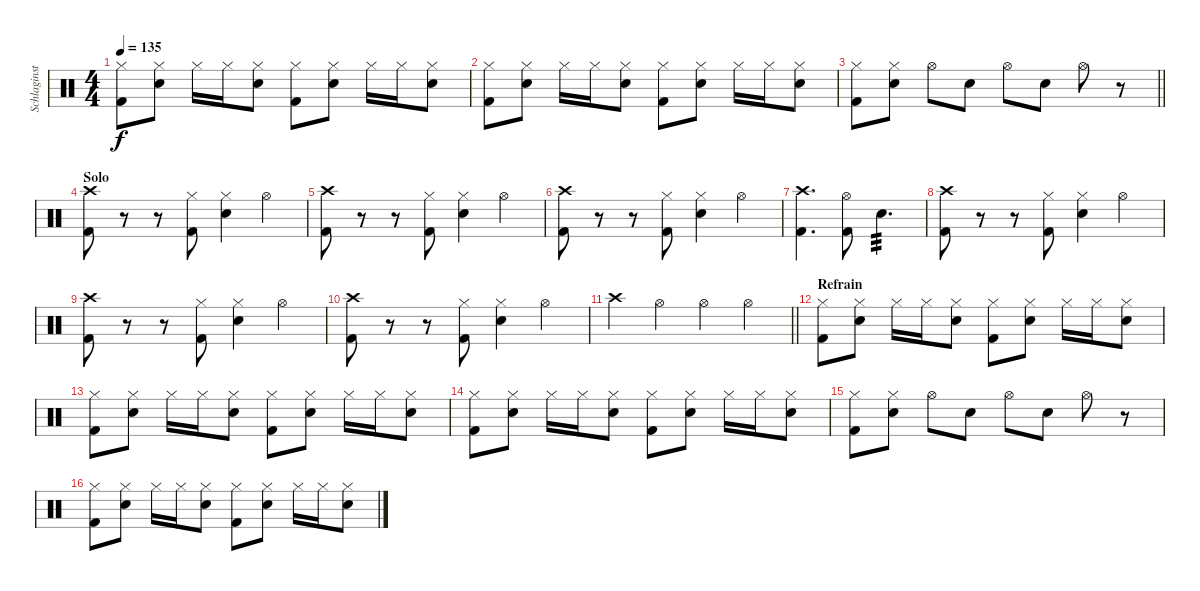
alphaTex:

\track ("Schlaginstrumente - Auswahl" "Schlaginst") {instrument percussion}
\staff {score}
\articulation defaults
\ts (4 4)
\tempo 135
\clef neutral
\ks c
("Hi-Hat (closed)" "Kick (hit) 2").8{dy f} ("Hi-Hat (closed)" "Snare (hit) 2").8 "Hi-Hat (closed)".16 "Hi-Hat (closed)".16 ("Hi-Hat (closed)" "Snare (hit) 2").8 ("Hi-Hat (closed)" "Kick (hit) 2").8 ("Hi-Hat (closed)" "Snare (hit) 2").8 "Hi-Hat (closed)".16 "Hi-Hat (closed)".16 ("Hi-Hat (closed)" "Snare (hit) 2").8 |
("Hi-Hat (closed)" "Kick (hit) 2").8 ("Hi-Hat (closed)" "Snare (hit) 2").8 "Hi-Hat (closed)".16 "Hi-Hat (closed)".16 ("Hi-Hat (closed)" "Snare (hit) 2").8 ("Hi-Hat (closed)" "Kick (hit) 2").8 ("Hi-Hat (closed)" "Snare (hit) 2").8 "Hi-Hat (closed)".16 "Hi-Hat (closed)".16 ("Hi-Hat (closed)" "Snare (hit) 2").8 |
\barLineRight lightlight
("Hi-Hat (closed)" "Kick (hit) 2").8 ("Hi-Hat (closed)" "Snare (hit) 2").8 "Hi-Hat (open)".8 "Snare (hit) 2".8 "Hi-Hat (open)".8 "Snare (hit) 2".8 "Hi-Hat (open)".8 r.8 |
\section ("" "Solo")
("Crash high (hit)" "Kick (hit) 2").8 r.8 r.8 ("Hi-Hat (closed)" "Kick (hit) 2").8 ("Hi-Hat (closed)" "Snare (hit) 2").4 "Hi-Hat (open)".4 |
("Crash high (hit)" "Kick (hit) 2").8 r.8 r.8 ("Hi-Hat (closed)" "Kick (hit) 2").8 ("Hi-Hat (closed)" "Snare (hit) 2").4 "Hi-Hat (open)".4 |
("Crash high (hit)" "Kick (hit) 2").8 r.8 r.8 ("Hi-Hat (closed)" "Kick (hit) 2").8 ("Hi-Hat (closed)" "Snare (hit) 2").4 "Hi-Hat (open)".4 |
("Crash high (hit)" "Kick (hit) 2").4{d} ("Hi-Hat (open)" "Kick (hit) 2").8 "Snare (hit) 2".4{d tp 3} |
("Crash high (hit)" "Kick (hit) 2").8 r.8 r.8 ("Hi-Hat (closed)" "Kick (hit) 2").8 ("Hi-Hat (closed)" "Snare (hit) 2").4 "Hi-Hat (open)".4 |
("Crash high (hit)" "Kick (hit) 2").8 r.8 r.8 ("Hi-Hat (closed)" "Kick (hit) 2").8 ("Hi-Hat (closed)" "Snare (hit) 2").4 "Hi-Hat (open)".4 |
("Crash high (hit)" "Kick (hit) 2").8 r.8 r.8 ("Hi-Hat (closed)" "Kick (hit) 2").8 ("Hi-Hat (closed)" "Snare (hit) 2").4 "Hi-Hat (open)".4 |
\barLineRight lightlight "Crash high (hit)".4 "Hi-Hat (open)".4 "Hi-Hat (open)".4 "Hi-Hat (open)".4
|
\section ("" "Refrain")
("Hi-Hat (closed)" "Kick (hit) 2").8 ("Hi-Hat (closed)" "Snare (hit) 2").8 "Hi-Hat (closed)".16 "Hi-Hat (closed)".16 ("Hi-Hat (closed)" "Snare (hit) 2").8 ("Hi-Hat (closed)" "Kick (hit) 2").8 ("Hi-Hat (closed)" "Snare (hit) 2").8 "Hi-Hat (closed)".16 "Hi-Hat (closed)".16 ("Hi-Hat (closed)" "Snare (hit) 2").8 |
("Hi-Hat (closed)" "Kick (hit) 2").8 ("Hi-Hat (closed)" "Snare (hit) 2").8 "Hi-Hat (closed)".16 "Hi-Hat (closed)".16 ("Hi-Hat (closed)" "Snare (hit) 2").8 ("Hi-Hat (closed)" "Kick (hit) 2").8 ("Hi-Hat (closed)" "Snare (hit) 2").8 "Hi-Hat (closed)".16 "Hi-Hat (closed)".16 ("Hi-Hat (closed)" "Snare (hit) 2").8 |
("Hi-Hat (closed)" "Kick (hit) 2").8 ("Hi-Hat (closed)" "Snare (hit) 2").8 "Hi-Hat (closed)".16 "Hi-Hat (closed)".16 ("Hi-Hat (closed)" "Snare (hit) 2").8 ("Hi-Hat (closed)" "Kick (hit) 2").8 ("Hi-Hat (closed)" "Snare (hit) 2").8 "Hi-Hat (closed)".16 "Hi-Hat (closed)".16 ("Hi-Hat (closed)" "Snare (hit) 2").8 |
("Hi-Hat (closed)" "Kick (hit) 2").8 ("Hi-Hat (closed)" "Snare (hit) 2").8 "Hi-Hat (open)".8 "Snare (hit) 2".8 "Hi-Hat (open)".8 "Snare (hit) 2".8 "Hi-Hat (open)".8 r.8 |
("Hi-Hat (closed)" "Kick (hit) 2").8 ("Hi-Hat (closed)" "Snare (hit) 2").8 "Hi-Hat (closed)".16 "Hi-Hat (closed)".16 ("Hi-Hat (closed)" "Snare (hit) 2").8 ("Hi-Hat (closed)" "Kick (hit) 2").8 ("Hi-Hat (closed)" "Snare (hit) 2").8 "Hi-Hat (closed)".16 "Hi-Hat (closed)".16 ("Hi-Hat (closed)" "Snare (hit) 2").8
